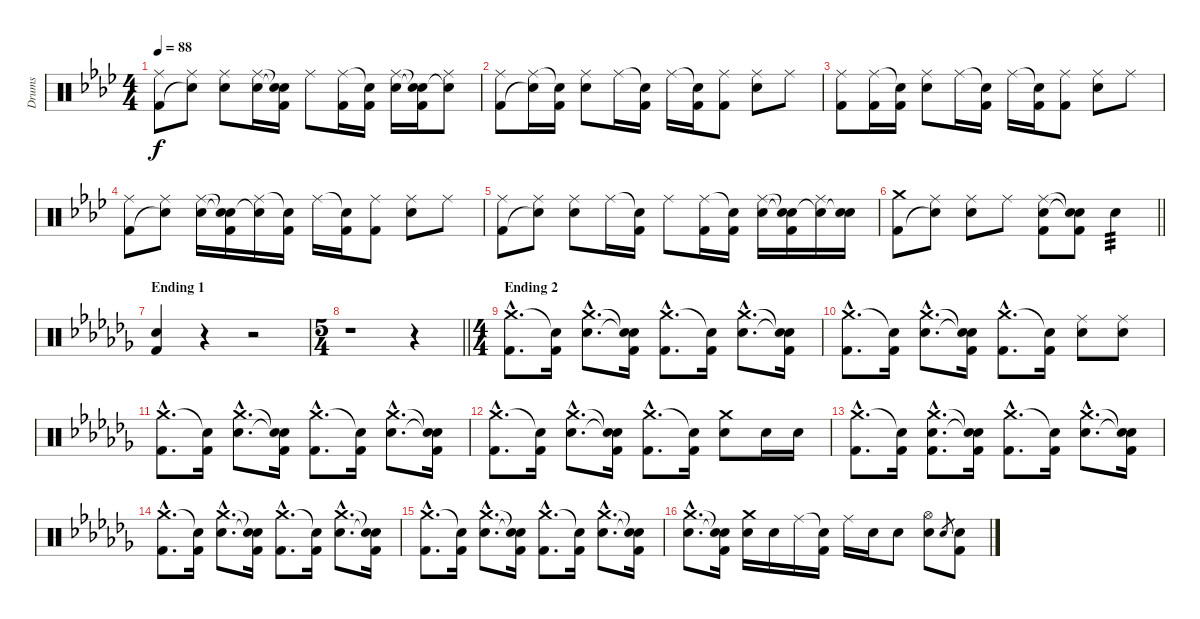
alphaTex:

\track ("Drums" "Drums") {instrument percussion}
\staff {score}
\articulation defaults
\ts (4 4)
\tempo 88
\clef neutral
\ks fminor
("Ride (middle)" "Kick (hit) 2").8{dy f} ("Ride (middle)" "Snare (hit)"{t}).8 ("Ride (middle)" "Electric Snare (hit)").8 ("Ride (middle)" "Electric Snare (hit)").16 ("Snare (hit)"{t} "Snare (hit)"{t} "Kick (hit) 2").16 "Ride (middle)".8 ("Ride (middle)" "Kick (hit) 2").16 ("Snare (hit)"{t} "Kick (hit) 2").16 ("Ride (middle)" "Electric Snare (hit)").16 ("Snare (hit)"{t} "Snare (hit)"{t} "Kick (hit) 2").16 ("Ride (middle)" "Snare (hit)"{t}).8 |
("Ride (middle)" "Kick (hit) 2").8 ("Ride (middle)" "Snare (hit)"{t}).16 ("Snare (hit)"{t} "Kick (hit) 2").16 ("Ride (middle)" "Electric Snare (hit)").8 "Ride (middle)".16 ("Snare (hit)"{t} "Kick (hit) 2").16 "Ride (middle)".16 ("Snare (hit)"{t} "Kick (hit) 2").16 ("Ride (middle)" "Kick (hit) 2").8 ("Ride (middle)" "Electric Snare (hit)").8 "Ride (middle)".8 |
("Ride (middle)" "Kick (hit) 2").8 ("Ride (middle)" "Kick (hit) 2").16 ("Snare (hit)"{t} "Kick (hit) 2").16 ("Ride (middle)" "Electric Snare (hit)").8 "Ride (middle)".16 ("Snare (hit)"{t} "Kick (hit) 2").16 "Ride (middle)".16 ("Snare (hit)"{t} "Kick (hit) 2").16 ("Ride (middle)" "Kick (hit) 2").8 ("Ride (middle)" "Electric Snare (hit)").8 "Ride (middle)".8 |
("Ride (middle)" "Kick (hit) 2").8 ("Ride (middle)" "Snare (hit)"{t}).8 ("Ride (middle)" "Electric Snare (hit)").16 ("Snare (hit)"{t} "Snare (hit)"{t} "Kick (hit) 2").16 ("Ride (middle)" "Snare (hit)"{t}).16 ("Snare (hit)"{t} "Kick (hit) 2").16 "Ride (middle)".16 ("Snare (hit)"{t} "Kick (hit) 2").16 ("Ride (middle)" "Kick (hit) 2").8 ("Ride (middle)" "Electric Snare (hit)").8 "Ride (middle)".8 |
("Ride (middle)" "Kick (hit) 2").8 ("Ride (middle)" "Snare (hit)"{t}).8 ("Ride (middle)" "Electric Snare (hit)").8 "Ride (middle)".16 ("Snare (hit)"{t} "Kick (hit) 2").16 "Ride (middle)".8 ("Ride (middle)" "Kick (hit) 2").16 ("Snare (hit)"{t} "Kick (hit) 2").16 ("Ride (middle)" "Electric Snare (hit)").16 ("Snare (hit)"{t} "Snare (hit)"{t} "Kick (hit) 2").16 ("Ride (middle)" "Snare (hit)"{t}).16 ("Electric Snare (hit)" "Snare (hit)"{t}).16 |
\barLineRight lightlight
("Crash medium (hit)" "Kick (hit) 2").8 ("Ride (middle)" "Snare (hit)"{t}).8 ("Ride (middle)" "Electric Snare (hit)").8 "Ride (middle)".8 ("Ride (middle)" "Electric Snare (hit)" "Kick (hit) 2").8 ("Snare (hit)"{t} "Snare (hit)"{t} "Kick (hit) 2").8 "Electric Snare (hit)".4{tp 3} |
\section ("" "Ending 1")
\ks abminor
("Electric Snare (hit)" "Kick (hit) 2").4 r.4 r.2 |
\ts (5 4)
\barLineRight lightlight
r.1 r.4 |
\ts (4 4)
\section ("" "Ending 2")
("Crash medium (hit)"{hac} "Kick (hit) 2"{hac}).8{d} ("Snare (hit)"{t} "Kick (hit) 2").16 ("Crash medium (hit)"{hac} "Electric Snare (hit)"{hac}).8{d} ("Snare (hit)"{t} "Snare (hit)"{t} "Kick (hit) 2").16 ("Crash medium (hit)"{hac} "Kick (hit) 2"{hac}).8{d} ("Snare (hit)"{t} "Kick (hit) 2").16 ("Crash medium (hit)"{hac} "Electric Snare (hit)"{hac}).8{d} ("Snare (hit)"{t} "Snare (hit)"{t} "Kick (hit) 2").16 |
("Crash medium (hit)"{hac} "Kick (hit) 2"{hac}).8{d} ("Snare (hit)"{t} "Kick (hit) 2").16 ("Crash medium (hit)"{hac} "Electric Snare (hit)"{hac}).8{d} ("Snare (hit)"{t} "Snare (hit)"{t} "Kick (hit) 2").16 ("Crash medium (hit)"{hac} "Kick (hit) 2"{hac}).8{d} ("Snare (hit)"{t} "Kick (hit) 2").16 ("Ride (middle)" "Electric Snare (hit)").8 ("Ride (middle)" "Electric Snare (hit)").8 |
("Crash medium (hit)"{hac} "Kick (hit) 2"{hac}).8{d} ("Snare (hit)"{t} "Kick (hit) 2").16 ("Crash medium (hit)"{hac} "Electric Snare (hit)"{hac}).8{d} ("Snare (hit)"{t} "Snare (hit)"{t} "Kick (hit) 2").16 ("Crash medium (hit)"{hac} "Kick (hit) 2"{hac}).8{d} ("Snare (hit)"{t} "Kick (hit) 2").16 ("Crash medium (hit)"{hac} "Electric Snare (hit)"{hac}).8{d} ("Snare (hit)"{t} "Snare (hit)"{t} "Kick (hit) 2").16 |
("Crash medium (hit)"{hac} "Kick (hit) 2"{hac}).8{d} ("Snare (hit)"{t} "Kick (hit) 2").16 ("Crash medium (hit)"{hac} "Electric Snare (hit)"{hac}).8{d} ("Snare (hit)"{t} "Snare (hit)"{t} "Kick (hit) 2").16 ("Crash medium (hit)"{hac} "Kick (hit) 2"{hac}).8{d} ("Snare (hit)"{t} "Kick (hit) 2").16 ("Crash medium (hit)" "Electric Snare (hit)").8 "Electric Snare (hit)".16 "Electric Snare (hit)".16 |
("Crash medium (hit)"{hac} "Kick (hit) 2"{hac}).8{d} ("Snare (hit)"{t} "Kick (hit) 2").16 ("Crash medium (hit)"{hac} "Electric Snare (hit)"{hac} "Kick (hit) 2"{hac}).8{d} ("Snare (hit)"{t} "Snare (hit)"{t} "Kick (hit) 2").16 ("Crash medium (hit)"{hac} "Kick (hit) 2"{hac}).8{d} ("Snare (hit)"{t} "Kick (hit) 2").16 ("Crash medium (hit)"{hac} "Electric Snare (hit)"{hac}).8{d} ("Snare (hit)"{t} "Snare (hit)"{t} "Kick (hit) 2").16 |
("Crash medium (hit)"{hac} "Kick (hit) 2"{hac}).8{d} ("Snare (hit)"{t} "Kick (hit) 2").16 ("Crash medium (hit)"{hac} "Electric Snare (hit)"{hac}).8{d} ("Snare (hit)"{t} "Snare (hit)"{t} "Kick (hit) 2").16 ("Crash medium (hit)"{hac} "Kick (hit) 2"{hac}).8{d} ("Snare (hit)"{t} "Kick (hit) 2").16 ("Crash medium (hit)"{hac} "Electric Snare (hit)"{hac}).8{d} ("Snare (hit)"{t} "Snare (hit)"{t} "Kick (hit) 2").16 |
("Crash medium (hit)"{hac} "Kick (hit) 2"{hac}).8{d} ("Snare (hit)"{t} "Kick (hit) 2").16 ("Crash medium (hit)"{hac} "Electric Snare (hit)"{hac}).8{d} ("Snare (hit)"{t} "Snare (hit)"{t} "Kick (hit) 2").16 ("Crash medium (hit)"{hac} "Kick (hit) 2"{hac}).8{d} ("Snare (hit)"{t} "Kick (hit) 2").16 ("Crash medium (hit)"{hac} "Electric Snare (hit)"{hac}).8{d} ("Snare (hit)"{t} "Snare (hit)"{t} "Kick (hit) 2").16 |
("Crash medium (hit)"{hac} "Electric Snare (hit)"{hac}).8{d} ("Snare (hit)"{t} "Snare (hit)"{t} "Kick (hit) 2").16 ("Crash medium (hit)" "Electric Snare (hit)").16 "Electric Snare (hit)".16 "Ride (middle)".16 ("Snare (hit)"{t} "Kick (hit) 2").16 "Ride (middle)".16 "Electric Snare (hit)".16 "Electric Snare (hit)".8 ("Hi-Hat (open)" "Electric Snare (hit)").8 "Electric Snare (hit)".8{gr} ("Electric Snare (hit)" "Kick (hit) 2").8
